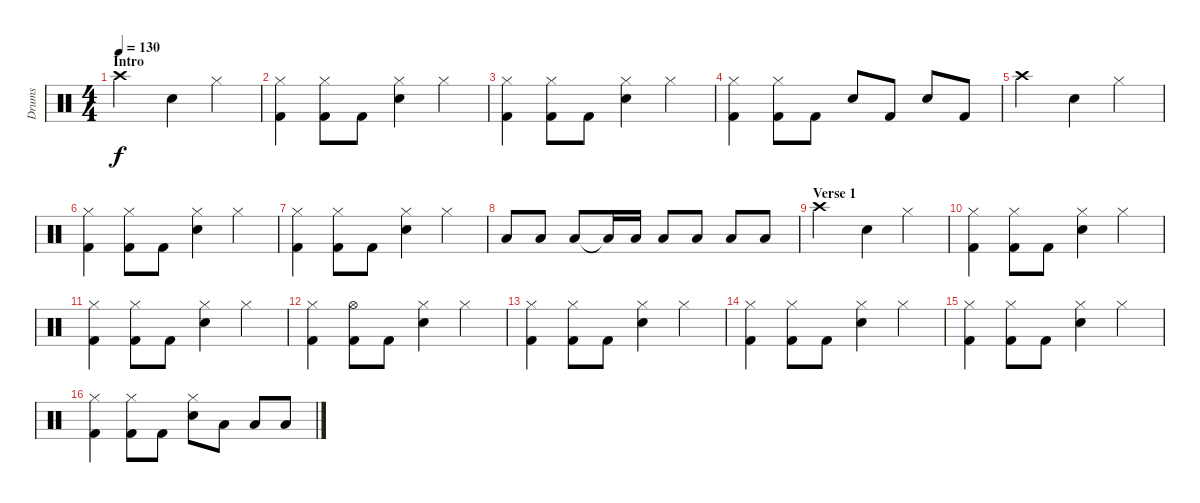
\track ("Drums" "Drums") {instrument percussion}
\staff {score}
\articulation defaults
\ts (4 4)
\section ("" "Intro")
\tempo 130
\clef neutral
\ks c "Crash high (hit)".2{dy f} "Snare (hit) 2".4 "Hi-Hat (closed)".4
|
("Hi-Hat (closed)" "Kick (hit) 2").4 ("Hi-Hat (closed)" "Kick (hit) 2").8 "Kick (hit) 2".8 ("Hi-Hat (closed)" "Snare (hit) 2").4 "Hi-Hat (closed)".4 |
("Hi-Hat (closed)" "Kick (hit) 2").4 ("Hi-Hat (closed)" "Kick (hit) 2").8 "Kick (hit) 2".8 ("Hi-Hat (closed)" "Snare (hit) 2").4 "Hi-Hat (closed)".4 |
("Hi-Hat (closed)" "Kick (hit) 2").4 ("Hi-Hat (closed)" "Kick (hit) 2").8 "Kick (hit) 2".8 "Snare (hit) 2".8 "Kick (hit) 2".8 "Snare (hit) 2".8 "Kick (hit) 2".8 |
"Crash high (hit)".2 "Snare (hit) 2".4 "Hi-Hat (closed)".4 |
("Hi-Hat (closed)" "Kick (hit) 2").4 ("Hi-Hat (closed)" "Kick (hit) 2").8 "Kick (hit) 2".8 ("Hi-Hat (closed)" "Snare (hit) 2").4 "Hi-Hat (closed)".4 |
("Hi-Hat (closed)" "Kick (hit) 2").4 ("Hi-Hat (closed)" "Kick (hit) 2").8 "Kick (hit) 2".8 ("Hi-Hat (closed)" "Snare (hit) 2").4 "Hi-Hat (closed)".4 |
"Low Tom (hit)".8 "Low Tom (hit)".8 "Low Tom (hit)".8 "Low Tom (hit)"{t}.16 "Low Tom (hit)".16 "Low Tom (hit)".8 "Low Tom (hit)".8 "Low Tom (hit)".8 "Low Tom (hit)".8 |
\section ("" "Verse 1")
"Crash high (hit)".2 "Snare (hit) 2".4 "Hi-Hat (closed)".4 |
("Hi-Hat (closed)" "Kick (hit) 2").4 ("Hi-Hat (closed)" "Kick (hit) 2").8 "Kick (hit) 2".8 ("Hi-Hat (closed)" "Snare (hit) 2").4 "Hi-Hat (closed)".4 |
("Hi-Hat (closed)" "Kick (hit) 2").4 ("Hi-Hat (closed)" "Kick (hit) 2").8 "Kick (hit) 2".8 ("Hi-Hat (closed)" "Snare (hit) 2").4 "Hi-Hat (closed)".4 |
("Hi-Hat (closed)" "Kick (hit) 2").4 ("Hi-Hat (open)" "Kick (hit) 2").8 "Kick (hit) 2".8 ("Hi-Hat (closed)" "Snare (hit) 2").4 "Hi-Hat (closed)".4 |
("Hi-Hat (closed)" "Kick (hit) 2").4 ("Hi-Hat (closed)" "Kick (hit) 2").8 "Kick (hit) 2".8 ("Hi-Hat (closed)" "Snare (hit) 2").4 "Hi-Hat (closed)".4 |
("Hi-Hat (closed)" "Kick (hit) 2").4 ("Hi-Hat (closed)" "Kick (hit) 2").8 "Kick (hit) 2".8 ("Hi-Hat (closed)" "Snare (hit) 2").4 "Hi-Hat (closed)".4 |
("Hi-Hat (closed)" "Kick (hit) 2").4 ("Hi-Hat (closed)" "Kick (hit) 2").8 "Kick (hit) 2".8 ("Hi-Hat (closed)" "Snare (hit) 2").4 "Hi-Hat (closed)".4 |
("Hi-Hat (closed)" "Kick (hit) 2").4 ("Hi-Hat (closed)" "Kick (hit) 2").8 "Kick (hit) 2".8 ("Hi-Hat (closed)" "Snare (hit) 2").8 "Low Tom (hit)".8 "Low Tom (hit)".8 "Low Tom (hit)".8
